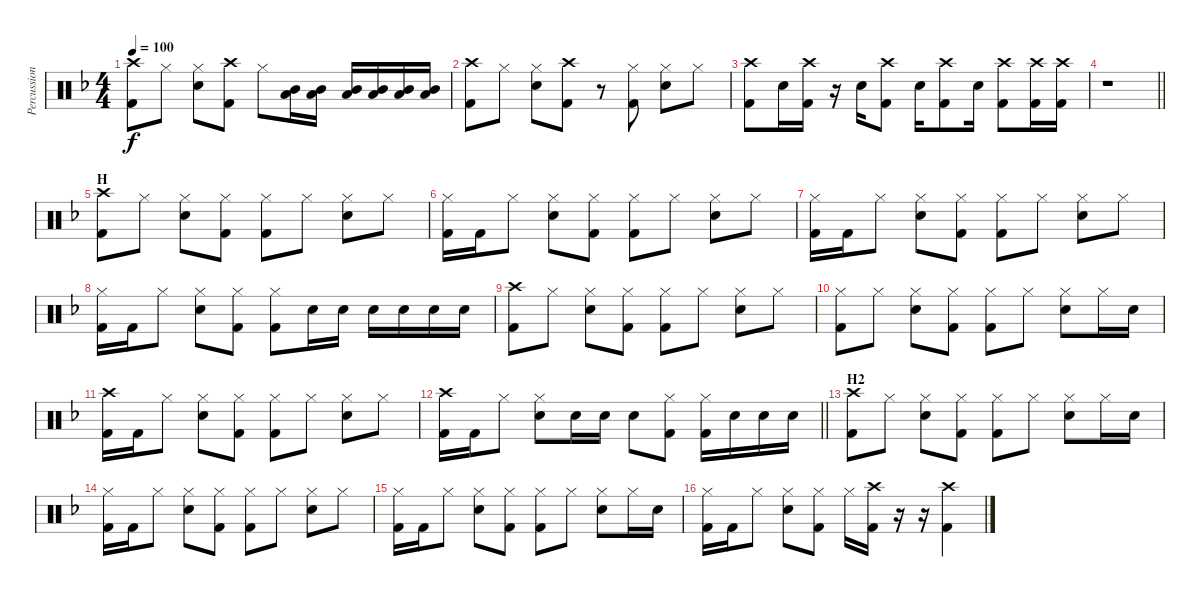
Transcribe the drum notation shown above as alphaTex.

\track ("Percussion" "Percussion") {instrument percussion}
\staff {score}
\articulation defaults
\ts (4 4)
\tempo 100
\clef neutral
\ks f
("Crash high (hit)" "Kick (hit) 2").8{dy f} "Hi-Hat (closed)".8 ("Hi-Hat (closed)" "Snare (hit) 2").8 ("Crash high (hit)" "Kick (hit) 2").8 "Hi-Hat (closed)".8 ("Mid Tom (hit)" "Low Tom (hit)").16 ("Mid Tom (hit)" "Low Tom (hit)").16 ("Mid Tom (hit)" "Low Tom (hit)").16 ("Mid Tom (hit)" "Low Tom (hit)").16 ("Mid Tom (hit)" "Low Tom (hit)").16 ("Mid Tom (hit)" "Low Tom (hit)").16 |
("Crash high (hit)" "Kick (hit) 2").8 "Hi-Hat (closed)".8 ("Hi-Hat (closed)" "Snare (hit) 2").8 ("Crash high (hit)" "Kick (hit) 2").8 r.8 ("Hi-Hat (closed)" "Kick (hit) 2").8 ("Hi-Hat (closed)" "Snare (hit) 2").8 "Hi-Hat (closed)".8 |
("Crash high (hit)" "Kick (hit) 2").8 "Snare (hit) 2".16 ("Crash high (hit)" "Kick (hit) 2").16 r.16 "Snare (hit) 2".16 ("Crash high (hit)" "Kick (hit) 2").8 "Snare (hit) 2".16 ("Crash high (hit)" "Kick (hit) 2").8 "Snare (hit) 2".16 ("Crash high (hit)" "Kick (hit) 2").8 ("Crash high (hit)" "Kick (hit) 2").16 ("Crash high (hit)" "Kick (hit) 2").16 |
\barLineRight lightlight
r.1 |
\section ("" "H")
("Crash high (hit)" "Kick (hit) 2").8 "Hi-Hat (closed)".8 ("Hi-Hat (closed)" "Snare (hit) 2").8 ("Hi-Hat (closed)" "Kick (hit) 2").8 ("Hi-Hat (closed)" "Kick (hit) 2").8 "Hi-Hat (closed)".8 ("Hi-Hat (closed)" "Snare (hit) 2").8 "Hi-Hat (closed)".8 |
("Hi-Hat (closed)" "Kick (hit) 2").16 "Kick (hit) 2".16 "Hi-Hat (closed)".8 ("Hi-Hat (closed)" "Snare (hit) 2").8 ("Hi-Hat (closed)" "Kick (hit) 2").8 ("Hi-Hat (closed)" "Kick (hit) 2").8 "Hi-Hat (closed)".8 ("Hi-Hat (closed)" "Snare (hit) 2").8 "Hi-Hat (closed)".8 |
("Hi-Hat (closed)" "Kick (hit) 2").16 "Kick (hit) 2".16 "Hi-Hat (closed)".8 ("Hi-Hat (closed)" "Snare (hit) 2").8 ("Hi-Hat (closed)" "Kick (hit) 2").8 ("Hi-Hat (closed)" "Kick (hit) 2").8 "Hi-Hat (closed)".8 ("Hi-Hat (closed)" "Snare (hit) 2").8 "Hi-Hat (closed)".8 |
("Hi-Hat (closed)" "Kick (hit) 2").16 "Kick (hit) 2".16 "Hi-Hat (closed)".8 ("Hi-Hat (closed)" "Snare (hit) 2").8 ("Hi-Hat (closed)" "Kick (hit) 2").8 ("Hi-Hat (closed)" "Kick (hit) 2").8 "Snare (hit) 2".16 "Snare (hit) 2".16 "Snare (hit) 2".16 "Snare (hit) 2".16 "Snare (hit) 2".16 "Snare (hit) 2".16 |
("Crash high (hit)" "Kick (hit) 2").8 "Hi-Hat (closed)".8 ("Hi-Hat (closed)" "Snare (hit) 2").8 ("Hi-Hat (closed)" "Kick (hit) 2").8 ("Hi-Hat (closed)" "Kick (hit) 2").8 "Hi-Hat (closed)".8 ("Hi-Hat (closed)" "Snare (hit) 2").8 "Hi-Hat (closed)".8 |
("Hi-Hat (closed)" "Kick (hit) 2").8 "Hi-Hat (closed)".8 ("Hi-Hat (closed)" "Snare (hit) 2").8 ("Hi-Hat (closed)" "Kick (hit) 2").8 ("Hi-Hat (closed)" "Kick (hit) 2").8 "Hi-Hat (closed)".8 ("Hi-Hat (closed)" "Snare (hit) 2").8 "Hi-Hat (closed)".16 "Snare (hit) 2".16 |
("Crash high (hit)" "Kick (hit) 2").16 "Kick (hit) 2".16 "Hi-Hat (closed)".8 ("Hi-Hat (closed)" "Snare (hit) 2").8 ("Hi-Hat (closed)" "Kick (hit) 2").8 ("Hi-Hat (closed)" "Kick (hit) 2").8 "Hi-Hat (closed)".8 ("Hi-Hat (closed)" "Snare (hit) 2").8 "Hi-Hat (closed)".8 |
\barLineRight lightlight
("Crash high (hit)" "Kick (hit) 2").16 "Kick (hit) 2".16 "Hi-Hat (closed)".8 ("Hi-Hat (closed)" "Snare (hit) 2").8 "Snare (hit) 2".16 "Snare (hit) 2".16 "Snare (hit) 2".8 ("Hi-Hat (closed)" "Kick (hit) 2").8 ("Hi-Hat (closed)" "Kick (hit) 2").16 "Snare (hit) 2".16 "Snare (hit) 2".16 "Snare (hit) 2".16 |
\section ("" "H2")
("Crash high (hit)" "Kick (hit) 2").8 "Hi-Hat (closed)".8 ("Hi-Hat (closed)" "Snare (hit) 2").8 ("Hi-Hat (closed)" "Kick (hit) 2").8 ("Hi-Hat (closed)" "Kick (hit) 2").8 "Hi-Hat (closed)".8 ("Hi-Hat (closed)" "Snare (hit) 2").8 "Hi-Hat (closed)".16 "Snare (hit) 2".16 |
("Hi-Hat (closed)" "Kick (hit) 2").16 "Kick (hit) 2".16 "Hi-Hat (closed)".8 ("Hi-Hat (closed)" "Snare (hit) 2").8 ("Hi-Hat (closed)" "Kick (hit) 2").8 ("Hi-Hat (closed)" "Kick (hit) 2").8 "Hi-Hat (closed)".8 ("Hi-Hat (closed)" "Snare (hit) 2").8 "Hi-Hat (closed)".8 |
("Hi-Hat (closed)" "Kick (hit) 2").16 "Kick (hit) 2".16 "Hi-Hat (closed)".8 ("Hi-Hat (closed)" "Snare (hit) 2").8 ("Hi-Hat (closed)" "Kick (hit) 2").8 ("Hi-Hat (closed)" "Kick (hit) 2").8 "Hi-Hat (closed)".8 ("Hi-Hat (closed)" "Snare (hit) 2").8 "Hi-Hat (closed)".16 "Snare (hit) 2".16 |
("Hi-Hat (closed)" "Kick (hit) 2").16 "Kick (hit) 2".16 "Hi-Hat (closed)".8 ("Hi-Hat (closed)" "Snare (hit) 2").8 ("Hi-Hat (closed)" "Kick (hit) 2").8 "Hi-Hat (closed)".16 ("Crash high (hit)" "Kick (hit) 2").16 r.16 r.16 ("Crash high (hit)" "Kick (hit) 2").4
